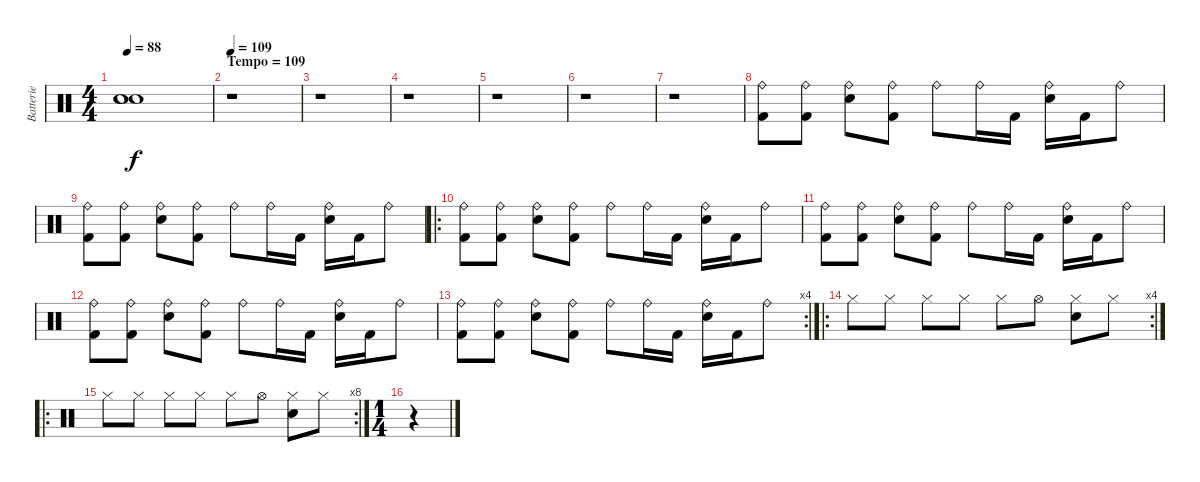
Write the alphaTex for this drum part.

\track ("Batterie" "Batterie") {instrument percussion}
\staff {score}
\articulation defaults
\ts (4 4)
\tempo 88
\clef neutral
\ks c
("Snare (hit)"{t} "Snare (hit)"{t} "Snare (hit)").1{dy f} |
\section ("" "Tempo = 109")
\tempo 109
r.1 |
r.1 |
r.1 |
r.1 |
r.1 |
r.1 |
("Kick (hit) 2" "Ride (bell)").8 ("Kick (hit) 2" "Ride (bell)").8 ("Snare (hit) 2" "Ride (bell)").8 ("Kick (hit) 2" "Ride (bell)").8 "Ride (bell)".8 "Ride (bell)".16 "Kick (hit) 2".16 ("Snare (hit) 2" "Ride (bell)").16 "Kick (hit) 2".16 "Ride (bell)".8 |
("Kick (hit) 2" "Ride (bell)").8 ("Kick (hit) 2" "Ride (bell)").8 ("Snare (hit) 2" "Ride (bell)").8 ("Kick (hit) 2" "Ride (bell)").8 "Ride (bell)".8 "Ride (bell)".16 "Kick (hit) 2".16 ("Snare (hit) 2" "Ride (bell)").16 "Kick (hit) 2".16 "Ride (bell)".8 |
\ro
("Kick (hit) 2" "Ride (bell)").8 ("Kick (hit) 2" "Ride (bell)").8 ("Snare (hit) 2" "Ride (bell)").8 ("Kick (hit) 2" "Ride (bell)").8 "Ride (bell)".8 "Ride (bell)".16 "Kick (hit) 2".16 ("Snare (hit) 2" "Ride (bell)").16 "Kick (hit) 2".16 "Ride (bell)".8 |
("Kick (hit) 2" "Ride (bell)").8 ("Kick (hit) 2" "Ride (bell)").8 ("Snare (hit) 2" "Ride (bell)").8 ("Kick (hit) 2" "Ride (bell)").8 "Ride (bell)".8 "Ride (bell)".16 "Kick (hit) 2".16 ("Snare (hit) 2" "Ride (bell)").16 "Kick (hit) 2".16 "Ride (bell)".8 |
("Kick (hit) 2" "Ride (bell)").8 ("Kick (hit) 2" "Ride (bell)").8 ("Snare (hit) 2" "Ride (bell)").8 ("Kick (hit) 2" "Ride (bell)").8 "Ride (bell)".8 "Ride (bell)".16 "Kick (hit) 2".16 ("Snare (hit) 2" "Ride (bell)").16 "Kick (hit) 2".16 "Ride (bell)".8 |
\rc 4
("Kick (hit) 2" "Ride (bell)").8 ("Kick (hit) 2" "Ride (bell)").8 ("Snare (hit) 2" "Ride (bell)").8 ("Kick (hit) 2" "Ride (bell)").8 "Ride (bell)".8 "Ride (bell)".16 "Kick (hit) 2".16 ("Snare (hit) 2" "Ride (bell)").16 "Kick (hit) 2".16 "Ride (bell)".8 |
\ro
\rc 4 "Hi-Hat (closed)".8 "Hi-Hat (closed)".8 "Hi-Hat (closed)".8 "Hi-Hat (closed)".8 "Hi-Hat (closed)".8 "Hi-Hat (open)".8
("Electric Snare (hit)" "Hi-Hat (closed)").8 "Hi-Hat (closed)".8 |
\ro
\rc 8 "Hi-Hat (closed)".8 "Hi-Hat (closed)".8 "Hi-Hat (closed)".8 "Hi-Hat (closed)".8 "Hi-Hat (closed)".8 "Hi-Hat (open)".8
("Electric Snare (hit)" "Hi-Hat (closed)").8 "Hi-Hat (closed)".8 |
\ts (1 4)
r.4
